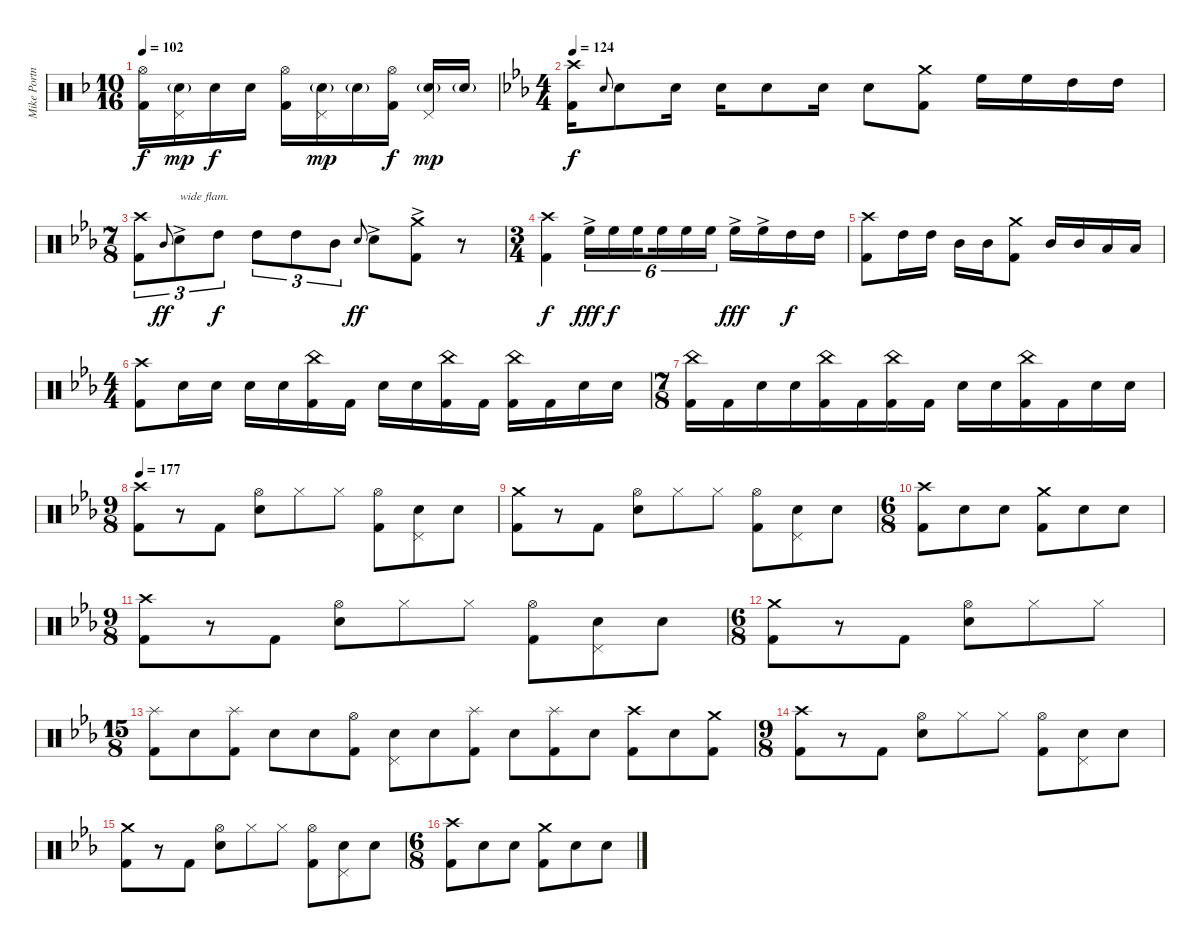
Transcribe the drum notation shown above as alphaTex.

\track ("Mike Portnoy" "Mike Portn") {instrument percussion}
\staff {score}
\articulation defaults
\ts (10 16)
\tempo 102
\clef neutral
\ks f
("Hi-Hat (open)" "Kick (hit) 2").16{dy f} ("Pedal Hi-Hat (hit)" "Electric Snare (hit)"{g}).16{dy mp} "Electric Snare (hit)".16{dy f} "Electric Snare (hit)".16 ("Hi-Hat (open)" "Kick (hit) 2").16 ("Pedal Hi-Hat (hit)" "Electric Snare (hit)"{g}).16{dy mp} "Electric Snare (hit)"{g}.16 ("Hi-Hat (open)" "Kick (hit) 2").16{dy f} ("Pedal Hi-Hat (hit)" "Electric Snare (hit)"{g}).16{dy mp} "Electric Snare (hit)"{g}.16 |
\ts (4 4)
\tempo 124
\ks eb
("Crash high (hit)" "Kick (hit) 2").16{dy f} "Electric Snare (hit)".8{gr onbeat} "Electric Snare (hit)".8 "Electric Snare (hit)".16 "Electric Snare (hit)".16 "Electric Snare (hit)".8 "Electric Snare (hit)".16 "Electric Snare (hit)".8 ("Crash medium (hit)" "Kick (hit) 2").8 "High Floor Tom (hit)".16 "High Floor Tom (hit)".16 "High Tom (hit)".16 "High Tom (hit)".16 |
\ts (7 8)
("Crash high (hit)" "Kick (hit) 2").8{tu (3 2)} "Mid Tom (hit)".8{gr onbeat dy ff} "Electric Snare (hit)"{ac}.8{tu (3 2) txt "wide flam."} "High Tom (hit)".8{tu (3 2) dy f} "High Tom (hit)".8{tu (3 2)} "High Tom (hit)".8{tu (3 2)} "Mid Tom (hit)".8{tu (3 2)} "Electric Snare (hit)".8{gr onbeat dy ff} "Electric Snare (hit)"{ac}.8 ("Crash medium (hit)"{ac} "Kick (hit) 2"{ac}).8 r.8 |
\ts (3 4)
("Crash high (hit)" "Kick (hit) 2").4{dy f} "High Floor Tom (hit)"{ac}.16{tu (6 4) dy fff} "High Floor Tom (hit)".16{tu (6 4) dy f} "High Floor Tom (hit)".16{tu (6 4) beam splitsecondary} "High Floor Tom (hit)".16{tu (6 4)} "High Floor Tom (hit)".16{tu (6 4)} "High Floor Tom (hit)".16{tu (6 4)} "High Floor Tom (hit)"{ac}.16{dy fff} "High Floor Tom (hit)"{ac}.16 "High Tom (hit)".16{dy f} "High Tom (hit)".16 |
("Crash high (hit)" "Kick (hit) 2").8 "High Tom (hit)".16 "High Tom (hit)".16 "Mid Tom (hit)".16 "Mid Tom (hit)".16 ("Crash medium (hit)" "Kick (hit) 2").8 "Mid Tom (hit)".16 "Mid Tom (hit)".16 "Low Tom (hit)".16 "Low Tom (hit)".16 |
\ts (4 4)
("Crash high (hit)" "Kick (hit) 2").8 "Electric Snare (hit)".16 "Electric Snare (hit)".16 "Electric Snare (hit)".16 "Electric Snare (hit)".16 ("China (hit)" "Kick (hit) 2").16 "Kick (hit) 2".16 "Electric Snare (hit)".16 "Electric Snare (hit)".16 ("China (hit)" "Kick (hit) 2").16 "Kick (hit) 2".16 ("China (hit)" "Kick (hit) 2").16 "Kick (hit) 2".16 "Electric Snare (hit)".16 "Electric Snare (hit)".16 |
\ts (7 8)
("China (hit)" "Kick (hit) 2").16 "Kick (hit) 2".16 "Electric Snare (hit)".16 "Electric Snare (hit)".16 ("China (hit)" "Kick (hit) 2").16 "Kick (hit) 2".16 ("China (hit)" "Kick (hit) 2").16 "Kick (hit) 2".16 "Electric Snare (hit)".16 "Electric Snare (hit)".16 ("China (hit)" "Kick (hit) 2").16 "Kick (hit) 2".16 "Electric Snare (hit)".16 "Electric Snare (hit)".16 |
\ts (9 8)
\tempo 177
("Crash high (hit)" "Kick (hit) 2").8 r.8 "Kick (hit) 2".8 ("Hi-Hat (open)" "Electric Snare (hit)").8 "Hi-Hat (closed)".8 "Hi-Hat (closed)".8 ("Hi-Hat (open)" "Kick (hit) 2").8 ("Pedal Hi-Hat (hit)" "Electric Snare (hit)").8 "Electric Snare (hit)".8 |
("Crash medium (hit)" "Kick (hit) 2").8 r.8 "Kick (hit) 2".8 ("Hi-Hat (open)" "Electric Snare (hit)").8 "Hi-Hat (closed)".8 "Hi-Hat (closed)".8 ("Hi-Hat (open)" "Kick (hit) 2").8 ("Pedal Hi-Hat (hit)" "Electric Snare (hit)").8 "Electric Snare (hit)".8 |
\ts (6 8)
("Crash high (hit)" "Kick (hit) 2").8 "Electric Snare (hit)".8 "Electric Snare (hit)".8 ("Crash medium (hit)" "Kick (hit) 2").8 "Electric Snare (hit)".8 "Electric Snare (hit)".8 |
\ts (9 8)
("Crash high (hit)" "Kick (hit) 2").8 r.8 "Kick (hit) 2".8 ("Hi-Hat (open)" "Electric Snare (hit)").8 "Hi-Hat (closed)".8 "Hi-Hat (closed)".8 ("Hi-Hat (open)" "Kick (hit) 2").8 ("Pedal Hi-Hat (hit)" "Electric Snare (hit)").8 "Electric Snare (hit)".8 |
\ts (6 8)
("Crash medium (hit)" "Kick (hit) 2").8 r.8 "Kick (hit) 2".8 ("Hi-Hat (open)" "Electric Snare (hit)").8 "Hi-Hat (closed)".8 "Hi-Hat (closed)".8 |
\ts (15 8)
("Splash (hit)" "Kick (hit) 2").8 "Electric Snare (hit)".8 ("Splash (hit)" "Kick (hit) 2").8 "Electric Snare (hit)".8 "Electric Snare (hit)".8 ("Hi-Hat (open)" "Kick (hit) 2").8 ("Pedal Hi-Hat (hit)" "Electric Snare (hit)").8 "Electric Snare (hit)".8 ("Splash (hit)" "Kick (hit) 2").8 "Electric Snare (hit)".8 ("Splash (hit)" "Kick (hit) 2").8 "Electric Snare (hit)".8 ("Crash high (hit)" "Kick (hit) 2").8 "Electric Snare (hit)".8 ("Crash medium (hit)" "Kick (hit) 2").8 |
\ts (9 8)
("Crash high (hit)" "Kick (hit) 2").8 r.8 "Kick (hit) 2".8 ("Hi-Hat (open)" "Electric Snare (hit)").8 "Hi-Hat (closed)".8 "Hi-Hat (closed)".8 ("Hi-Hat (open)" "Kick (hit) 2").8 ("Pedal Hi-Hat (hit)" "Electric Snare (hit)").8 "Electric Snare (hit)".8 |
("Crash medium (hit)" "Kick (hit) 2").8 r.8 "Kick (hit) 2".8 ("Hi-Hat (open)" "Electric Snare (hit)").8 "Hi-Hat (closed)".8 "Hi-Hat (closed)".8 ("Hi-Hat (open)" "Kick (hit) 2").8 ("Pedal Hi-Hat (hit)" "Electric Snare (hit)").8 "Electric Snare (hit)".8 |
\ts (6 8)
("Crash high (hit)" "Kick (hit) 2").8 "Electric Snare (hit)".8 "Electric Snare (hit)".8 ("Crash medium (hit)" "Kick (hit) 2").8 "Electric Snare (hit)".8 "Electric Snare (hit)".8
